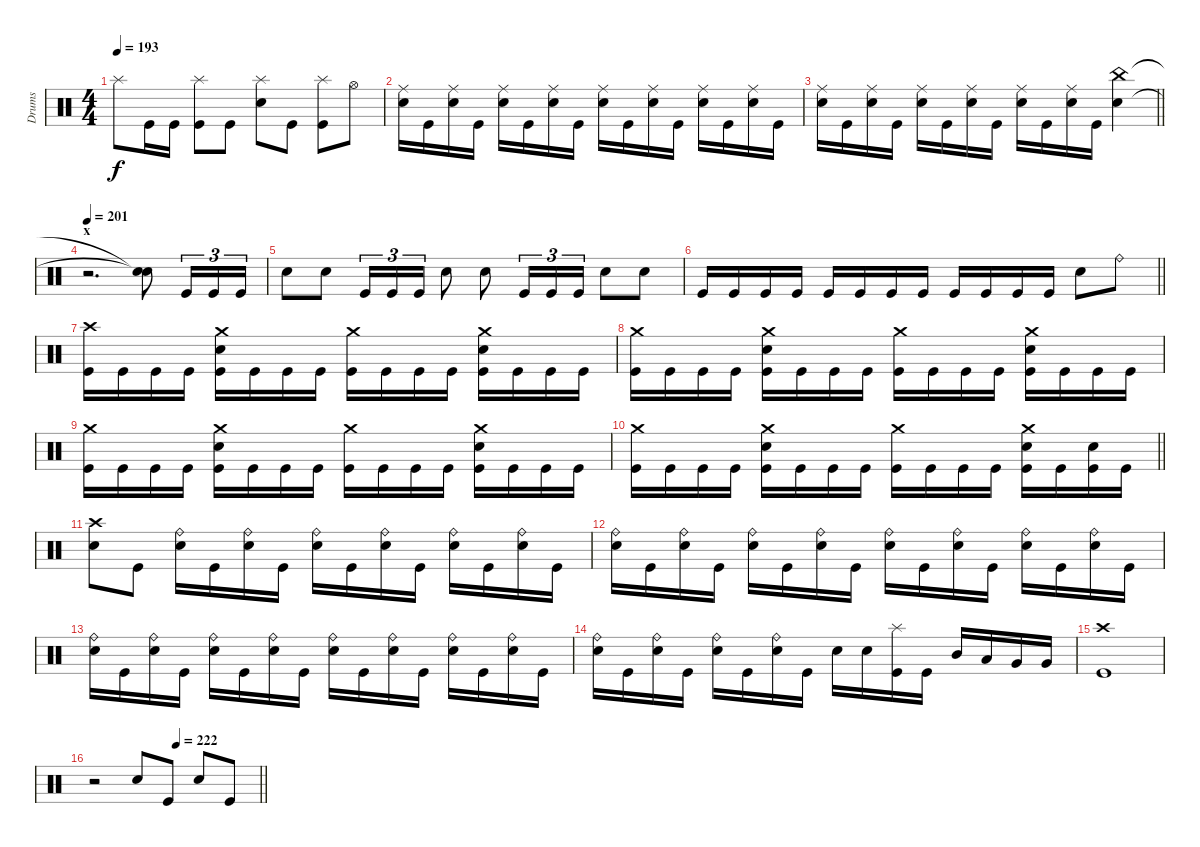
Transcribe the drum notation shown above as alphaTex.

\track ("Drums" "Drums") {instrument percussion}
\staff
\articulation defaults
\ts (4 4)
\tempo 193
\clef neutral
\ks c "Splash (hit)".8{dy f} "Kick (hit)".16 "Kick (hit)".16
("Splash (hit)" "Kick (hit)").8 "Kick (hit)".8 ("Splash (hit)" "Electric Snare (hit)").8 "Kick (hit)".8 ("Splash (hit)" "Kick (hit)").8 "Hi-Hat (open)".8 |
("Ride (middle)" "Electric Snare (hit)").16 "Kick (hit)".16 ("Ride (middle)" "Electric Snare (hit)").16 "Kick (hit)".16 ("Ride (middle)" "Electric Snare (hit)").16 "Kick (hit)".16 ("Ride (middle)" "Electric Snare (hit)").16 "Kick (hit)".16 ("Ride (middle)" "Electric Snare (hit)").16 "Kick (hit)".16 ("Ride (middle)" "Electric Snare (hit)").16 "Kick (hit)".16 ("Ride (middle)" "Electric Snare (hit)").16 "Kick (hit)".16 ("Ride (middle)" "Electric Snare (hit)").16 "Kick (hit)".16 |
\barLineRight lightlight
("Ride (middle)" "Electric Snare (hit)").16 "Kick (hit)".16 ("Ride (middle)" "Electric Snare (hit)").16 "Kick (hit)".16 ("Ride (middle)" "Electric Snare (hit)").16 "Kick (hit)".16 ("Ride (middle)" "Electric Snare (hit)").16 "Kick (hit)".16 ("Ride (middle)" "Electric Snare (hit)").16 "Kick (hit)".16 ("Ride (middle)" "Electric Snare (hit)").16 "Kick (hit)".16 ("China (hit)" "Electric Snare (hit)").4 |
\section ("" "x")
\tempo 201
r.2{d} ("Snare (hit)"{t} "Snare (hit)"{t}).8 "Kick (hit)".16{tu (3 2)} "Kick (hit)".16{tu (3 2)} "Kick (hit)".16{tu (3 2)} |
"Electric Snare (hit)".8 "Electric Snare (hit)".8 "Kick (hit)".16{tu (3 2)} "Kick (hit)".16{tu (3 2)} "Kick (hit)".16{tu (3 2)} "Electric Snare (hit)".8 "Electric Snare (hit)".8 "Kick (hit)".16{tu (3 2)} "Kick (hit)".16{tu (3 2)} "Kick (hit)".16{tu (3 2)} "Electric Snare (hit)".8 "Electric Snare (hit)".8 |
\barLineRight lightlight "Kick (hit)".16 "Kick (hit)".16 "Kick (hit)".16 "Kick (hit)".16 "Kick (hit)".16 "Kick (hit)".16 "Kick (hit)".16 "Kick (hit)".16 "Kick (hit)".16 "Kick (hit)".16 "Kick (hit)".16 "Kick (hit)".16 "Electric Snare (hit)".8 "Ride (bell)".8
|
\section ("" "")
("Crash high (hit)" "Kick (hit)").16 "Kick (hit)".16 "Kick (hit)".16 "Kick (hit)".16 ("Crash medium (hit)" "Electric Snare (hit)" "Kick (hit)").16 "Kick (hit)".16 "Kick (hit)".16 "Kick (hit)".16 ("Crash medium (hit)" "Kick (hit)").16 "Kick (hit)".16 "Kick (hit)".16 "Kick (hit)".16 ("Crash medium (hit)" "Electric Snare (hit)" "Kick (hit)").16 "Kick (hit)".16 "Kick (hit)".16 "Kick (hit)".16 |
("Crash medium (hit)" "Kick (hit)").16 "Kick (hit)".16 "Kick (hit)".16 "Kick (hit)".16 ("Crash medium (hit)" "Electric Snare (hit)" "Kick (hit)").16 "Kick (hit)".16 "Kick (hit)".16 "Kick (hit)".16 ("Crash medium (hit)" "Kick (hit)").16 "Kick (hit)".16 "Kick (hit)".16 "Kick (hit)".16 ("Crash medium (hit)" "Electric Snare (hit)" "Kick (hit)").16 "Kick (hit)".16 "Kick (hit)".16 "Kick (hit)".16 |
("Crash medium (hit)" "Kick (hit)").16 "Kick (hit)".16 "Kick (hit)".16 "Kick (hit)".16 ("Crash medium (hit)" "Electric Snare (hit)" "Kick (hit)").16 "Kick (hit)".16 "Kick (hit)".16 "Kick (hit)".16 ("Crash medium (hit)" "Kick (hit)").16 "Kick (hit)".16 "Kick (hit)".16 "Kick (hit)".16 ("Crash medium (hit)" "Electric Snare (hit)" "Kick (hit)").16 "Kick (hit)".16 "Kick (hit)".16 "Kick (hit)".16 |
\barLineRight lightlight
("Crash medium (hit)" "Kick (hit)").16 "Kick (hit)".16 "Kick (hit)".16 "Kick (hit)".16 ("Crash medium (hit)" "Electric Snare (hit)" "Kick (hit)").16 "Kick (hit)".16 "Kick (hit)".16 "Kick (hit)".16 ("Crash medium (hit)" "Kick (hit)").16 "Kick (hit)".16 "Kick (hit)".16 "Kick (hit)".16 ("Crash medium (hit)" "Electric Snare (hit)" "Kick (hit)").16 "Kick (hit)".16 ("Electric Snare (hit)" "Kick (hit)").16 "Kick (hit)".16 |
("Crash high (hit)" "Electric Snare (hit)").8 "Kick (hit)".8 ("Ride (bell)" "Electric Snare (hit)").16 "Kick (hit)".16 ("Ride (bell)" "Electric Snare (hit)").16 "Kick (hit)".16 ("Ride (bell)" "Electric Snare (hit)").16 "Kick (hit)".16 ("Ride (bell)" "Electric Snare (hit)").16 "Kick (hit)".16 ("Ride (bell)" "Electric Snare (hit)").16 "Kick (hit)".16 ("Ride (bell)" "Electric Snare (hit)").16 "Kick (hit)".16 |
("Ride (bell)" "Electric Snare (hit)").16 "Kick (hit)".16 ("Ride (bell)" "Electric Snare (hit)").16 "Kick (hit)".16 ("Ride (bell)" "Electric Snare (hit)").16 "Kick (hit)".16 ("Ride (bell)" "Electric Snare (hit)").16 "Kick (hit)".16 ("Ride (bell)" "Electric Snare (hit)").16 "Kick (hit)".16 ("Ride (bell)" "Electric Snare (hit)").16 "Kick (hit)".16 ("Ride (bell)" "Electric Snare (hit)").16 "Kick (hit)".16 ("Ride (bell)" "Electric Snare (hit)").16 "Kick (hit)".16 |
("Ride (bell)" "Electric Snare (hit)").16 "Kick (hit)".16 ("Ride (bell)" "Electric Snare (hit)").16 "Kick (hit)".16 ("Ride (bell)" "Electric Snare (hit)").16 "Kick (hit)".16 ("Ride (bell)" "Electric Snare (hit)").16 "Kick (hit)".16 ("Ride (bell)" "Electric Snare (hit)").16 "Kick (hit)".16 ("Ride (bell)" "Electric Snare (hit)").16 "Kick (hit)".16 ("Ride (bell)" "Electric Snare (hit)").16 "Kick (hit)".16 ("Ride (bell)" "Electric Snare (hit)").16 "Kick (hit)".16 |
("Ride (bell)" "Electric Snare (hit)").16 "Kick (hit)".16 ("Ride (bell)" "Electric Snare (hit)").16 "Kick (hit)".16 ("Ride (bell)" "Electric Snare (hit)").16 "Kick (hit)".16 ("Ride (bell)" "Electric Snare (hit)").16 "Kick (hit)".16 "Electric Snare (hit)".16 "Electric Snare (hit)".16 ("Splash (hit)" "Kick (hit)").16 "Kick (hit)".16 "Mid Tom (hit)".16 "Low Tom (hit)".16 "Very Low Tom (hit)".16 "Very Low Tom (hit)".16 |
("Crash high (hit)" "Kick (hit)").1 |
\tempo (222 0.5)
\barLineRight lightlight
r.2 "Electric Snare (hit)".8 "Kick (hit)".8 "Electric Snare (hit)".8 "Kick (hit)".8
